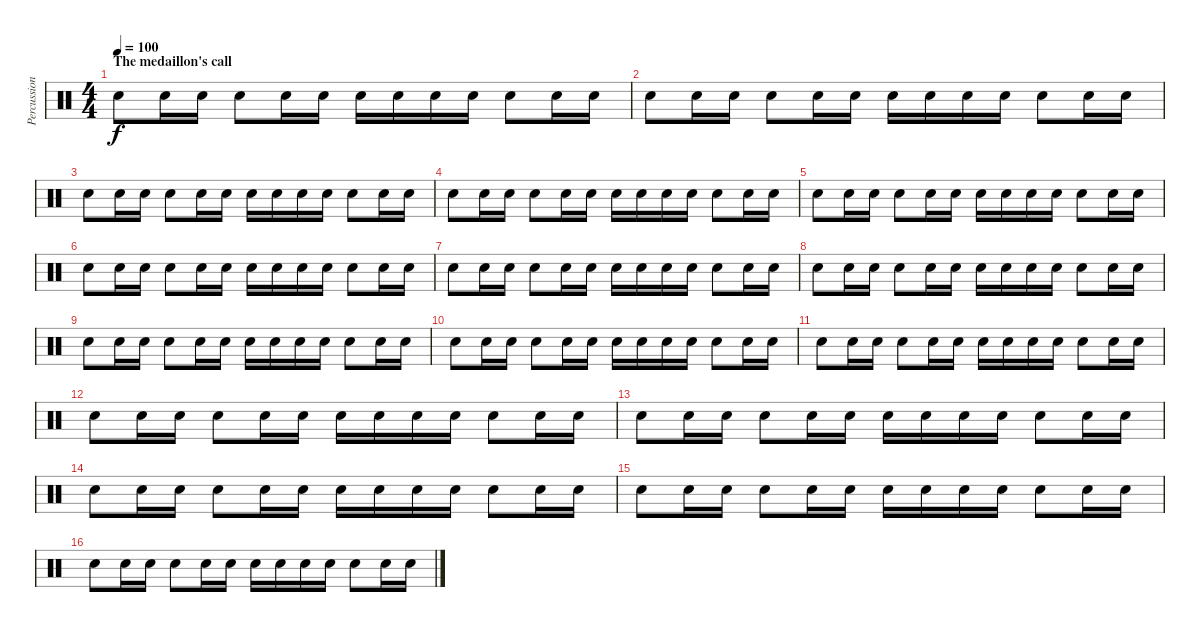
\track ("Percussions" "Percussion") {instrument percussion}
\staff {score}
\articulation defaults
\ts (4 4)
\section ("" "The medaillon's call")
\tempo 100
\clef neutral
\ks c "Snare (hit) 2".8{dy f} "Snare (hit) 2".16 "Snare (hit) 2".16 "Snare (hit) 2".8 "Snare (hit) 2".16 "Snare (hit) 2".16 "Snare (hit) 2".16 "Snare (hit) 2".16 "Snare (hit) 2".16 "Snare (hit) 2".16 "Snare (hit) 2".8 "Snare (hit) 2".16 "Snare (hit) 2".16
|
"Snare (hit) 2".8 "Snare (hit) 2".16 "Snare (hit) 2".16 "Snare (hit) 2".8 "Snare (hit) 2".16 "Snare (hit) 2".16 "Snare (hit) 2".16 "Snare (hit) 2".16 "Snare (hit) 2".16 "Snare (hit) 2".16 "Snare (hit) 2".8 "Snare (hit) 2".16 "Snare (hit) 2".16 |
"Snare (hit) 2".8 "Snare (hit) 2".16 "Snare (hit) 2".16 "Snare (hit) 2".8 "Snare (hit) 2".16 "Snare (hit) 2".16 "Snare (hit) 2".16 "Snare (hit) 2".16 "Snare (hit) 2".16 "Snare (hit) 2".16 "Snare (hit) 2".8 "Snare (hit) 2".16 "Snare (hit) 2".16 |
"Snare (hit) 2".8 "Snare (hit) 2".16 "Snare (hit) 2".16 "Snare (hit) 2".8 "Snare (hit) 2".16 "Snare (hit) 2".16 "Snare (hit) 2".16 "Snare (hit) 2".16 "Snare (hit) 2".16 "Snare (hit) 2".16 "Snare (hit) 2".8 "Snare (hit) 2".16 "Snare (hit) 2".16 |
"Snare (hit) 2".8 "Snare (hit) 2".16 "Snare (hit) 2".16 "Snare (hit) 2".8 "Snare (hit) 2".16 "Snare (hit) 2".16 "Snare (hit) 2".16 "Snare (hit) 2".16 "Snare (hit) 2".16 "Snare (hit) 2".16 "Snare (hit) 2".8 "Snare (hit) 2".16 "Snare (hit) 2".16 |
"Snare (hit) 2".8 "Snare (hit) 2".16 "Snare (hit) 2".16 "Snare (hit) 2".8 "Snare (hit) 2".16 "Snare (hit) 2".16 "Snare (hit) 2".16 "Snare (hit) 2".16 "Snare (hit) 2".16 "Snare (hit) 2".16 "Snare (hit) 2".8 "Snare (hit) 2".16 "Snare (hit) 2".16 |
"Snare (hit) 2".8 "Snare (hit) 2".16 "Snare (hit) 2".16 "Snare (hit) 2".8 "Snare (hit) 2".16 "Snare (hit) 2".16 "Snare (hit) 2".16 "Snare (hit) 2".16 "Snare (hit) 2".16 "Snare (hit) 2".16 "Snare (hit) 2".8 "Snare (hit) 2".16 "Snare (hit) 2".16 |
"Snare (hit) 2".8 "Snare (hit) 2".16 "Snare (hit) 2".16 "Snare (hit) 2".8 "Snare (hit) 2".16 "Snare (hit) 2".16 "Snare (hit) 2".16 "Snare (hit) 2".16 "Snare (hit) 2".16 "Snare (hit) 2".16 "Snare (hit) 2".8 "Snare (hit) 2".16 "Snare (hit) 2".16 |
"Snare (hit) 2".8 "Snare (hit) 2".16 "Snare (hit) 2".16 "Snare (hit) 2".8 "Snare (hit) 2".16 "Snare (hit) 2".16 "Snare (hit) 2".16 "Snare (hit) 2".16 "Snare (hit) 2".16 "Snare (hit) 2".16 "Snare (hit) 2".8 "Snare (hit) 2".16 "Snare (hit) 2".16 |
"Snare (hit) 2".8 "Snare (hit) 2".16 "Snare (hit) 2".16 "Snare (hit) 2".8 "Snare (hit) 2".16 "Snare (hit) 2".16 "Snare (hit) 2".16 "Snare (hit) 2".16 "Snare (hit) 2".16 "Snare (hit) 2".16 "Snare (hit) 2".8 "Snare (hit) 2".16 "Snare (hit) 2".16 |
"Snare (hit) 2".8 "Snare (hit) 2".16 "Snare (hit) 2".16 "Snare (hit) 2".8 "Snare (hit) 2".16 "Snare (hit) 2".16 "Snare (hit) 2".16 "Snare (hit) 2".16 "Snare (hit) 2".16 "Snare (hit) 2".16 "Snare (hit) 2".8 "Snare (hit) 2".16 "Snare (hit) 2".16 |
"Snare (hit) 2".8 "Snare (hit) 2".16 "Snare (hit) 2".16 "Snare (hit) 2".8 "Snare (hit) 2".16 "Snare (hit) 2".16 "Snare (hit) 2".16 "Snare (hit) 2".16 "Snare (hit) 2".16 "Snare (hit) 2".16 "Snare (hit) 2".8 "Snare (hit) 2".16 "Snare (hit) 2".16 |
"Snare (hit) 2".8 "Snare (hit) 2".16 "Snare (hit) 2".16 "Snare (hit) 2".8 "Snare (hit) 2".16 "Snare (hit) 2".16 "Snare (hit) 2".16 "Snare (hit) 2".16 "Snare (hit) 2".16 "Snare (hit) 2".16 "Snare (hit) 2".8 "Snare (hit) 2".16 "Snare (hit) 2".16 |
"Snare (hit) 2".8 "Snare (hit) 2".16 "Snare (hit) 2".16 "Snare (hit) 2".8 "Snare (hit) 2".16 "Snare (hit) 2".16 "Snare (hit) 2".16 "Snare (hit) 2".16 "Snare (hit) 2".16 "Snare (hit) 2".16 "Snare (hit) 2".8 "Snare (hit) 2".16 "Snare (hit) 2".16 |
"Snare (hit) 2".8 "Snare (hit) 2".16 "Snare (hit) 2".16 "Snare (hit) 2".8 "Snare (hit) 2".16 "Snare (hit) 2".16 "Snare (hit) 2".16 "Snare (hit) 2".16 "Snare (hit) 2".16 "Snare (hit) 2".16 "Snare (hit) 2".8 "Snare (hit) 2".16 "Snare (hit) 2".16 |
"Snare (hit) 2".8 "Snare (hit) 2".16 "Snare (hit) 2".16 "Snare (hit) 2".8 "Snare (hit) 2".16 "Snare (hit) 2".16 "Snare (hit) 2".16 "Snare (hit) 2".16 "Snare (hit) 2".16 "Snare (hit) 2".16 "Snare (hit) 2".8 "Snare (hit) 2".16 "Snare (hit) 2".16
